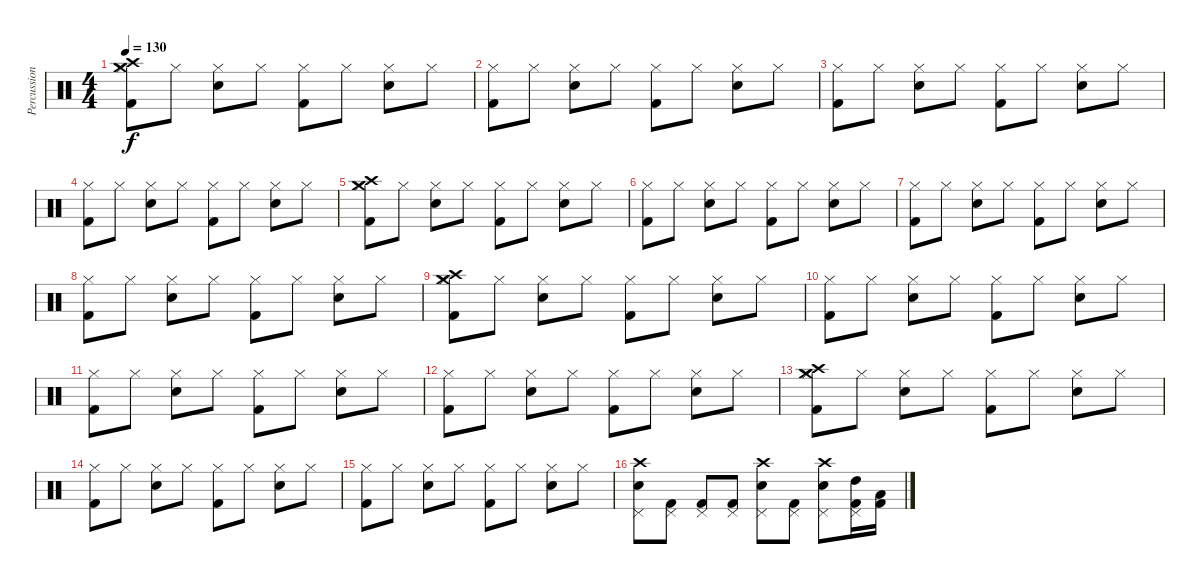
\track ("Percussion" "Percussion") {instrument percussion}
\staff {score}
\articulation defaults
\ts (4 4)
\tempo 130
\clef neutral
\ks c
("Crash medium (hit)" "Crash high (hit)" "Hi-Hat (closed)" "Kick (hit) 2").8{dy f} "Hi-Hat (closed)".8 ("Hi-Hat (closed)" "Snare (hit) 2").8 "Hi-Hat (closed)".8 ("Hi-Hat (closed)" "Kick (hit) 2").8 "Hi-Hat (closed)".8 ("Hi-Hat (closed)" "Snare (hit) 2").8 "Hi-Hat (closed)".8 |
("Hi-Hat (closed)" "Kick (hit) 2").8 "Hi-Hat (closed)".8 ("Hi-Hat (closed)" "Snare (hit) 2").8 "Hi-Hat (closed)".8 ("Hi-Hat (closed)" "Kick (hit) 2").8 "Hi-Hat (closed)".8 ("Hi-Hat (closed)" "Snare (hit) 2").8 "Hi-Hat (closed)".8 |
("Hi-Hat (closed)" "Kick (hit) 2").8 "Hi-Hat (closed)".8 ("Hi-Hat (closed)" "Snare (hit) 2").8 "Hi-Hat (closed)".8 ("Hi-Hat (closed)" "Kick (hit) 2").8 "Hi-Hat (closed)".8 ("Hi-Hat (closed)" "Snare (hit) 2").8 "Hi-Hat (closed)".8 |
("Hi-Hat (closed)" "Kick (hit) 2").8 "Hi-Hat (closed)".8 ("Hi-Hat (closed)" "Snare (hit) 2").8 "Hi-Hat (closed)".8 ("Hi-Hat (closed)" "Kick (hit) 2").8 "Hi-Hat (closed)".8 ("Hi-Hat (closed)" "Snare (hit) 2").8 "Hi-Hat (closed)".8 |
("Crash medium (hit)" "Crash high (hit)" "Hi-Hat (closed)" "Kick (hit) 2").8 "Hi-Hat (closed)".8 ("Hi-Hat (closed)" "Snare (hit) 2").8 "Hi-Hat (closed)".8 ("Hi-Hat (closed)" "Kick (hit) 2").8 "Hi-Hat (closed)".8 ("Hi-Hat (closed)" "Snare (hit) 2").8 "Hi-Hat (closed)".8 |
("Hi-Hat (closed)" "Kick (hit) 2").8 "Hi-Hat (closed)".8 ("Hi-Hat (closed)" "Snare (hit) 2").8 "Hi-Hat (closed)".8 ("Hi-Hat (closed)" "Kick (hit) 2").8 "Hi-Hat (closed)".8 ("Hi-Hat (closed)" "Snare (hit) 2").8 "Hi-Hat (closed)".8 |
("Hi-Hat (closed)" "Kick (hit) 2").8 "Hi-Hat (closed)".8 ("Hi-Hat (closed)" "Snare (hit) 2").8 "Hi-Hat (closed)".8 ("Hi-Hat (closed)" "Kick (hit) 2").8 "Hi-Hat (closed)".8 ("Hi-Hat (closed)" "Snare (hit) 2").8 "Hi-Hat (closed)".8 |
("Hi-Hat (closed)" "Kick (hit) 2").8 "Hi-Hat (closed)".8 ("Hi-Hat (closed)" "Snare (hit) 2").8 "Hi-Hat (closed)".8 ("Hi-Hat (closed)" "Kick (hit) 2").8 "Hi-Hat (closed)".8 ("Hi-Hat (closed)" "Snare (hit) 2").8 "Hi-Hat (closed)".8 |
("Crash medium (hit)" "Crash high (hit)" "Hi-Hat (closed)" "Kick (hit) 2").8 "Hi-Hat (closed)".8 ("Hi-Hat (closed)" "Snare (hit) 2").8 "Hi-Hat (closed)".8 ("Hi-Hat (closed)" "Kick (hit) 2").8 "Hi-Hat (closed)".8 ("Hi-Hat (closed)" "Snare (hit) 2").8 "Hi-Hat (closed)".8 |
("Hi-Hat (closed)" "Kick (hit) 2").8 "Hi-Hat (closed)".8 ("Hi-Hat (closed)" "Snare (hit) 2").8 "Hi-Hat (closed)".8 ("Hi-Hat (closed)" "Kick (hit) 2").8 "Hi-Hat (closed)".8 ("Hi-Hat (closed)" "Snare (hit) 2").8 "Hi-Hat (closed)".8 |
("Hi-Hat (closed)" "Kick (hit) 2").8 "Hi-Hat (closed)".8 ("Hi-Hat (closed)" "Snare (hit) 2").8 "Hi-Hat (closed)".8 ("Hi-Hat (closed)" "Kick (hit) 2").8 "Hi-Hat (closed)".8 ("Hi-Hat (closed)" "Snare (hit) 2").8 "Hi-Hat (closed)".8 |
("Hi-Hat (closed)" "Kick (hit) 2").8 "Hi-Hat (closed)".8 ("Hi-Hat (closed)" "Snare (hit) 2").8 "Hi-Hat (closed)".8 ("Hi-Hat (closed)" "Kick (hit) 2").8 "Hi-Hat (closed)".8 ("Hi-Hat (closed)" "Snare (hit) 2").8 "Hi-Hat (closed)".8 |
("Crash medium (hit)" "Crash high (hit)" "Hi-Hat (closed)" "Kick (hit) 2").8 "Hi-Hat (closed)".8 ("Hi-Hat (closed)" "Snare (hit) 2").8 "Hi-Hat (closed)".8 ("Hi-Hat (closed)" "Kick (hit) 2").8 "Hi-Hat (closed)".8 ("Hi-Hat (closed)" "Snare (hit) 2").8 "Hi-Hat (closed)".8 |
("Hi-Hat (closed)" "Kick (hit) 2").8 "Hi-Hat (closed)".8 ("Hi-Hat (closed)" "Snare (hit) 2").8 "Hi-Hat (closed)".8 ("Hi-Hat (closed)" "Kick (hit) 2").8 "Hi-Hat (closed)".8 ("Hi-Hat (closed)" "Snare (hit) 2").8 "Hi-Hat (closed)".8 |
("Hi-Hat (closed)" "Kick (hit) 2").8 "Hi-Hat (closed)".8 ("Hi-Hat (closed)" "Snare (hit) 2").8 "Hi-Hat (closed)".8 ("Hi-Hat (closed)" "Kick (hit) 2").8 "Hi-Hat (closed)".8 ("Hi-Hat (closed)" "Snare (hit) 2").8 "Hi-Hat (closed)".8 |
("Crash high (hit)" "Pedal Hi-Hat (hit)" "Snare (hit) 2").8 ("Pedal Hi-Hat (hit)" "Kick (hit) 2").8 ("Pedal Hi-Hat (hit)" "Kick (hit) 2").8 ("Pedal Hi-Hat (hit)" "Kick (hit) 2").8 ("Crash high (hit)" "Pedal Hi-Hat (hit)" "Snare (hit) 2").8 ("Pedal Hi-Hat (hit)" "Kick (hit) 2").8 ("Crash high (hit)" "Pedal Hi-Hat (hit)" "Snare (hit) 2").8 ("Pedal Hi-Hat (hit)" "High Tom (hit)" "Kick (hit) 2").16 ("Low Tom (hit)" "Kick (hit) 2").16
